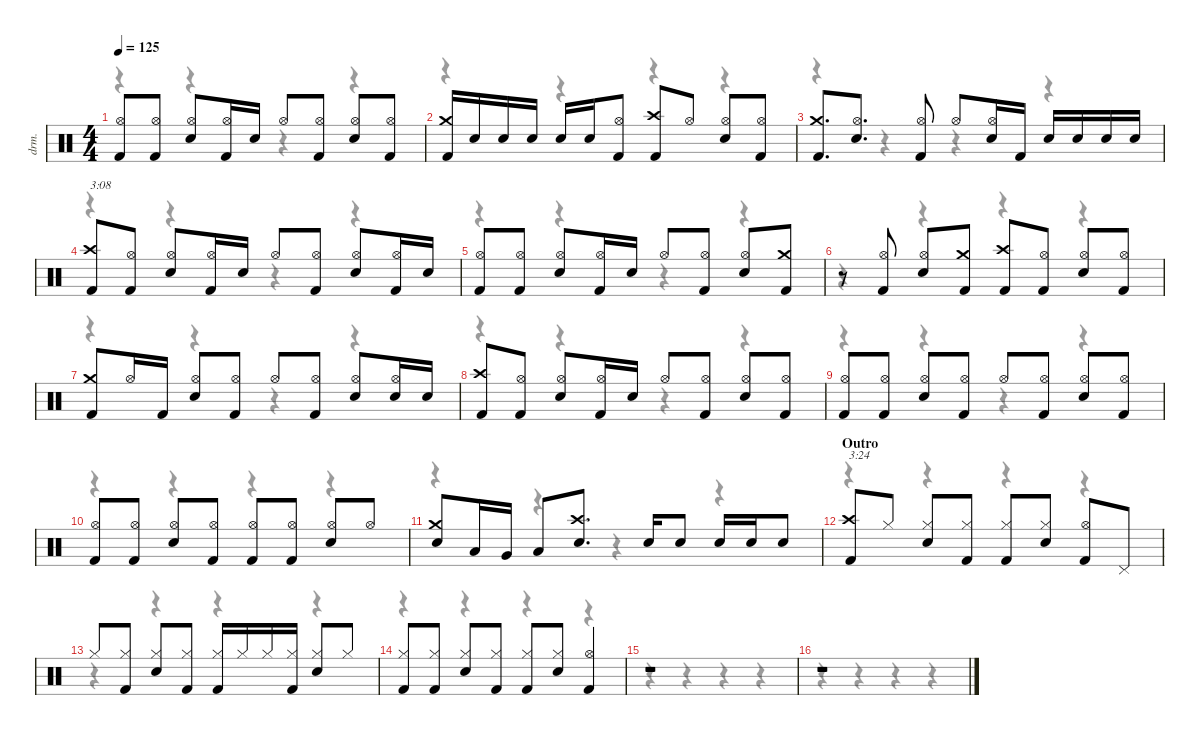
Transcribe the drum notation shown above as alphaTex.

\defaultSystemsLayout 4
\hideDynamics
\bracketExtendMode nobrackets
\otherSystemsTrackNameOrientation horizontal
\track ("Drums" "drm.") {instrument percussion}
\staff {score}
\articulation defaults
\voice
\ts (4 4)
\tempo 125
\clef neutral
\ks c
("Hi-Hat (open)" "Kick (hit) 2").8{dy f beam Up} ("Hi-Hat (open)" "Kick (hit) 2").8{beam Up} ("Hi-Hat (open)" "Snare (hit) 2").8{beam Up} ("Hi-Hat (open)" "Kick (hit) 2").16{beam Up} "Snare (hit) 2".16{beam Up} "Hi-Hat (open)".8{beam Up} ("Hi-Hat (open)" "Kick (hit) 2").8{beam Up} ("Hi-Hat (open)" "Snare (hit) 2").8{beam Up} ("Hi-Hat (open)" "Kick (hit) 2").8{beam Up} |
("Crash medium (hit)" "Kick (hit) 2").16{beam Up} "Snare (hit) 2".16{beam Up} "Snare (hit) 2".16{beam Up} "Snare (hit) 2".16{beam Up} "Snare (hit) 2".16{beam Up} "Snare (hit) 2".16{beam Up} ("Hi-Hat (open)" "Kick (hit) 2").8{beam Up} ("Crash high (hit)" "Kick (hit) 2").8{beam Up} "Hi-Hat (open)".8{beam Up} ("Hi-Hat (open)" "Snare (hit) 2").8{beam Up} ("Hi-Hat (open)" "Kick (hit) 2").8{beam Up} |
("Crash medium (hit)" "Kick (hit) 2").8{d beam Up} ("Hi-Hat (open)" "Snare (hit) 2").8{d beam Up} ("Hi-Hat (open)" "Kick (hit) 2").8{beam Up} "Hi-Hat (open)".8{beam Up} ("Hi-Hat (open)" "Snare (hit) 2").16{beam Up} "Kick (hit) 2".16{beam Up} "Snare (hit) 2".16{beam Up} "Snare (hit) 2".16{beam Up} "Snare (hit) 2".16{beam Up} "Snare (hit) 2".16{beam Up} |
("Crash high (hit)" "Kick (hit) 2").8{txt "3:08" beam Up} ("Hi-Hat (open)" "Kick (hit) 2").8{beam Up} ("Hi-Hat (open)" "Snare (hit) 2").8{beam Up} ("Hi-Hat (open)" "Kick (hit) 2").16{beam Up} "Snare (hit) 2".16{beam Up} "Hi-Hat (open)".8{beam Up} ("Hi-Hat (open)" "Kick (hit) 2").8{beam Up} ("Hi-Hat (open)" "Snare (hit) 2").8{beam Up} ("Hi-Hat (open)" "Kick (hit) 2").16{beam Up} "Snare (hit) 2".16{beam Up} |
("Hi-Hat (open)" "Kick (hit) 2").8{beam Up} ("Hi-Hat (open)" "Kick (hit) 2").8{beam Up} ("Hi-Hat (open)" "Snare (hit) 2").8{beam Up} ("Hi-Hat (open)" "Kick (hit) 2").16{beam Up} "Snare (hit) 2".16{beam Up} "Hi-Hat (open)".8{beam Up} ("Hi-Hat (open)" "Kick (hit) 2").8{beam Up} ("Hi-Hat (open)" "Snare (hit) 2").8{beam Up} ("Crash medium (hit)" "Kick (hit) 2").8{beam Up} |
r.8{beam Up} ("Hi-Hat (open)" "Kick (hit) 2").8{beam Up} ("Hi-Hat (open)" "Snare (hit) 2").8{beam Up} ("Crash medium (hit)" "Kick (hit) 2").8{beam Up} ("Crash high (hit)" "Kick (hit) 2").8{beam Up} ("Hi-Hat (open)" "Kick (hit) 2").8{beam Up} ("Hi-Hat (open)" "Snare (hit) 2").8{beam Up} ("Hi-Hat (open)" "Kick (hit) 2").8{beam Up} |
("Crash medium (hit)" "Kick (hit) 2").8{beam Up} "Hi-Hat (open)".16{beam Up} "Kick (hit) 2".16{beam Up} ("Hi-Hat (open)" "Snare (hit) 2").8{beam Up} ("Hi-Hat (open)" "Kick (hit) 2").8{beam Up} "Hi-Hat (open)".8{beam Up} ("Hi-Hat (open)" "Kick (hit) 2").8{beam Up} ("Hi-Hat (open)" "Snare (hit) 2").8{beam Up} ("Hi-Hat (open)" "Snare (hit) 2").16{beam Up} "Snare (hit) 2".16{beam Up} |
("Crash high (hit)" "Kick (hit) 2").8{beam Up} ("Hi-Hat (open)" "Kick (hit) 2").8{beam Up} ("Hi-Hat (open)" "Snare (hit) 2").8{beam Up} ("Hi-Hat (open)" "Kick (hit) 2").16{beam Up} "Snare (hit) 2".16{beam Up} "Hi-Hat (open)".8{beam Up} ("Hi-Hat (open)" "Kick (hit) 2").8{beam Up} ("Hi-Hat (open)" "Snare (hit) 2").8{beam Up} ("Hi-Hat (open)" "Kick (hit) 2").8{beam Up} |
("Hi-Hat (open)" "Kick (hit) 2").8{beam Up} ("Hi-Hat (open)" "Kick (hit) 2").8{beam Up} ("Hi-Hat (open)" "Snare (hit) 2").8{beam Up} ("Hi-Hat (open)" "Kick (hit) 2").8{beam Up} "Hi-Hat (open)".8{beam Up} ("Hi-Hat (open)" "Kick (hit) 2").8{beam Up} ("Hi-Hat (open)" "Snare (hit) 2").8{beam Up} ("Hi-Hat (open)" "Kick (hit) 2").8{beam Up} |
("Hi-Hat (open)" "Kick (hit) 2").8{beam Up} ("Hi-Hat (open)" "Kick (hit) 2").8{beam Up} ("Hi-Hat (open)" "Snare (hit) 2").8{beam Up} ("Hi-Hat (open)" "Kick (hit) 2").8{beam Up} ("Hi-Hat (open)" "Kick (hit) 2").8{beam Up} ("Hi-Hat (open)" "Kick (hit) 2").8{beam Up} ("Hi-Hat (open)" "Snare (hit) 2").8{beam Up} "Hi-Hat (open)".8{beam Up} |
("Crash medium (hit)" "Snare (hit) 2").8{beam Up} "Low Tom (hit)".16{beam Up} "Very Low Tom (hit)".16{beam Up} "Low Floor Tom (hit)".8{beam Up} ("Crash high (hit)" "Snare (hit) 2").8{d beam Up} "Snare (hit) 2".16{beam Up} "Snare (hit) 2".8{beam Up} "Snare (hit) 2".16{beam Up} "Snare (hit) 2".16{beam Up} "Snare (hit) 2".8{beam Up} |
\section ("" "Outro")
("Crash high (hit)" "Kick (hit) 2").8{txt "3:24" beam Up} "Hi-Hat (closed)".8{beam Up} ("Hi-Hat (closed)" "Snare (hit) 2").8{beam Up} ("Hi-Hat (closed)" "Kick (hit) 2").8{beam Up} ("Hi-Hat (closed)" "Kick (hit) 2").8{beam Up} ("Hi-Hat (closed)" "Snare (hit) 2").8{beam Up} ("Hi-Hat (open)" "Kick (hit) 2").8{beam Up} "Pedal Hi-Hat (hit)".8{beam Up} |
"Hi-Hat (closed)".8{beam Up} ("Hi-Hat (closed)" "Kick (hit) 2").8{beam Up} ("Hi-Hat (closed)" "Snare (hit) 2").8{beam Up} ("Hi-Hat (closed)" "Kick (hit) 2").8{beam Up} ("Hi-Hat (closed)" "Kick (hit) 2").16{beam Up} "Hi-Hat (closed)".16{beam Up} "Hi-Hat (closed)".16{beam Up} ("Hi-Hat (closed)" "Kick (hit) 2").16{beam Up} ("Hi-Hat (closed)" "Snare (hit) 2").8{beam Up} "Hi-Hat (closed)".8{beam Up} |
("Hi-Hat (closed)" "Kick (hit) 2").8{beam Up} ("Hi-Hat (closed)" "Kick (hit) 2").8{beam Up} ("Hi-Hat (closed)" "Snare (hit) 2").8{beam Up} ("Hi-Hat (closed)" "Kick (hit) 2").8{beam Up} ("Hi-Hat (closed)" "Kick (hit) 2").8{beam Up} ("Hi-Hat (closed)" "Snare (hit) 2").8{beam Up} ("Hi-Hat (open)" "Kick (hit) 2").4{beam Up} |
r.1{beam Up} |
r.1{beam Up}
\voice
\clef neutral
\ottava regular
\simile none
\ks c
r.4{dy mf beam Down} r.4{beam Down} r.4{beam Down} r.4{beam Down} |
r.4{beam Down} r.4{beam Down} r.4{beam Down} r.4{beam Down} |
r.4{beam Down} r.4{beam Down} r.4{beam Down} r.4{beam Down} |
r.4{beam Down} r.4{beam Down} r.4{beam Down} r.4{beam Down} |
r.4{beam Down} r.4{beam Down} r.4{beam Down} r.4{beam Down} |
r.4{beam Down} r.4{beam Down} r.4{beam Down} r.4{beam Down} |
r.4{beam Down} r.4{beam Down} r.4{beam Down} r.4{beam Down} |
r.4{beam Down} r.4{beam Down} r.4{beam Down} r.4{beam Down} |
r.4{beam Down} r.4{beam Down} r.4{beam Down} r.4{beam Down} |
r.4{beam Down} r.4{beam Down} r.4{beam Down} r.4{beam Down} |
r.4{beam Down} r.4{beam Down} r.4{beam Down} r.4{beam Down} |
r.4{beam Down} r.4{beam Down} r.4{beam Down} r.4{beam Down} |
r.4{beam Down} r.4{beam Down} r.4{beam Down} r.4{beam Down} |
r.4{beam Down} r.4{beam Down} r.4{beam Down} r.4{beam Down} |
r.4{beam Down} r.4{beam Down} r.4{beam Down} r.4{beam Down} |
r.4{beam Down} r.4{beam Down} r.4{beam Down} r.4{beam Down}
